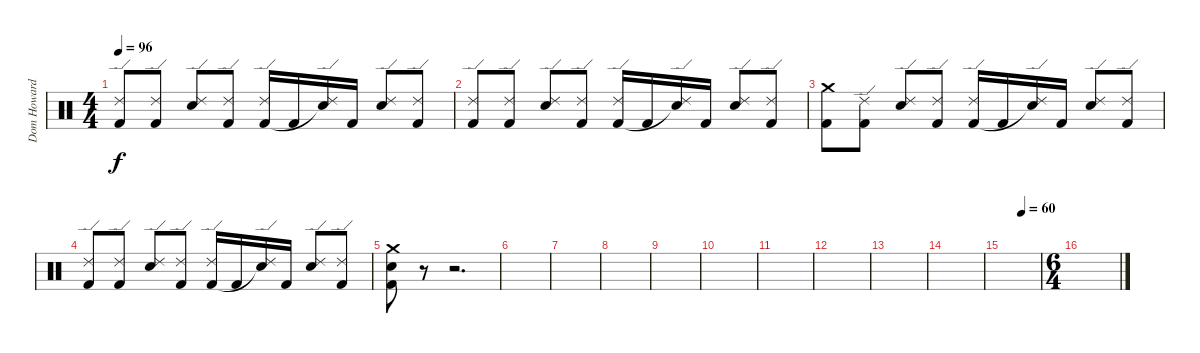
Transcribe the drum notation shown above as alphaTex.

\track ("Dom Howard" "Dom Howard") {instrument percussion}
\staff {score}
\articulation defaults
\ts (4 4)
\tempo 96
\clef neutral
\ks c
("Ride (edge) 2" "Kick (hit) 2").8{dy f} ("Ride (edge) 2" "Kick (hit) 2").8 ("Ride (edge) 2" "Electric Snare (hit)").8 ("Ride (edge) 2" "Kick (hit) 2").8 ("Ride (edge) 2" "Kick (hit) 2").16 "Kick (hit) 2".16 ("Ride (edge) 2" "Snare (hit)"{t}).16 "Kick (hit) 2".16 ("Ride (edge) 2" "Electric Snare (hit)").8 ("Ride (edge) 2" "Kick (hit) 2").8 |
("Ride (edge) 2" "Kick (hit) 2").8 ("Ride (edge) 2" "Kick (hit) 2").8 ("Ride (edge) 2" "Electric Snare (hit)").8 ("Ride (edge) 2" "Kick (hit) 2").8 ("Ride (edge) 2" "Kick (hit) 2").16 "Kick (hit) 2".16 ("Ride (edge) 2" "Snare (hit)"{t}).16 "Kick (hit) 2".16 ("Ride (edge) 2" "Electric Snare (hit)").8 ("Ride (edge) 2" "Kick (hit) 2").8 |
("Crash medium (hit)" "Kick (hit) 2").8 ("Ride (edge) 2" "Kick (hit) 2").8 ("Ride (edge) 2" "Electric Snare (hit)").8 ("Ride (edge) 2" "Kick (hit) 2").8 ("Ride (edge) 2" "Kick (hit) 2").16 "Kick (hit) 2".16 ("Ride (edge) 2" "Snare (hit)"{t}).16 "Kick (hit) 2".16 ("Ride (edge) 2" "Electric Snare (hit)").8 ("Ride (edge) 2" "Kick (hit) 2").8 |
("Ride (edge) 2" "Kick (hit) 2").8 ("Ride (edge) 2" "Kick (hit) 2").8 ("Ride (edge) 2" "Electric Snare (hit)").8 ("Ride (edge) 2" "Kick (hit) 2").8 ("Ride (edge) 2" "Kick (hit) 2").16 "Kick (hit) 2".16 ("Ride (edge) 2" "Snare (hit)"{t}).16 "Kick (hit) 2".16 ("Ride (edge) 2" "Electric Snare (hit)").8 ("Ride (edge) 2" "Kick (hit) 2").8 |
("Crash medium (hit)" "Electric Snare (hit)" "Kick (hit) 2").8 r.8 r.2{d} |
|
|
|
|
|
|
|
|
|
\tempo (60 0.5)
|
\ts (6 4)
